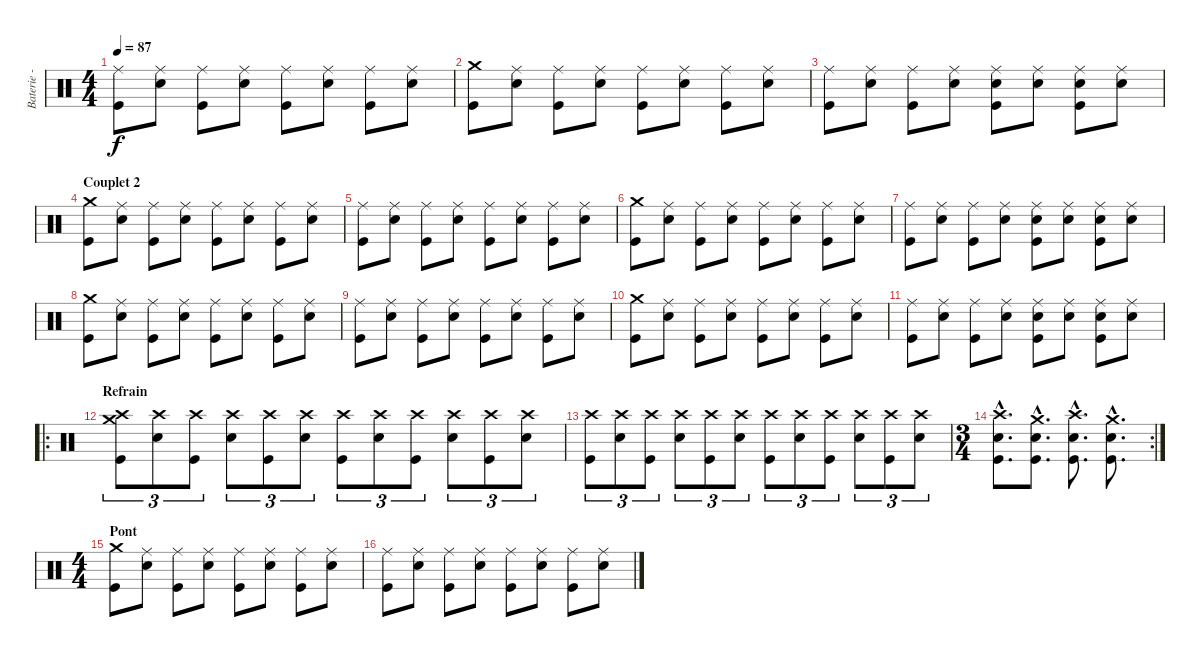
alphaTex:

\track ("Baterie - Alex" "Baterie - ") {instrument percussion}
\staff {score}
\articulation defaults
\ts (4 4)
\tempo 87
\clef neutral
\ks c
("Ride (middle)" "Kick (hit)").8{dy f} ("Ride (middle)" "Electric Snare (hit)").8 ("Ride (middle)" "Kick (hit)").8 ("Ride (middle)" "Electric Snare (hit)").8 ("Ride (middle)" "Kick (hit)").8 ("Ride (middle)" "Electric Snare (hit)").8 ("Ride (middle)" "Kick (hit)").8 ("Ride (middle)" "Electric Snare (hit)").8 |
("Crash medium (hit)" "Kick (hit)").8 ("Ride (middle)" "Electric Snare (hit)").8 ("Ride (middle)" "Kick (hit)").8 ("Ride (middle)" "Electric Snare (hit)").8 ("Ride (middle)" "Kick (hit)").8 ("Ride (middle)" "Electric Snare (hit)").8 ("Ride (middle)" "Kick (hit)").8 ("Ride (middle)" "Electric Snare (hit)").8 |
("Ride (middle)" "Kick (hit)").8 ("Ride (middle)" "Electric Snare (hit)").8 ("Ride (middle)" "Kick (hit)").8 ("Ride (middle)" "Electric Snare (hit)").8 ("Ride (middle)" "Electric Snare (hit)" "Kick (hit)").8 ("Ride (middle)" "Electric Snare (hit)").8 ("Ride (middle)" "Electric Snare (hit)" "Kick (hit)").8 ("Ride (middle)" "Electric Snare (hit)").8 |
\section ("" "Couplet 2")
("Crash medium (hit)" "Kick (hit)").8 ("Ride (middle)" "Electric Snare (hit)").8 ("Ride (middle)" "Kick (hit)").8 ("Ride (middle)" "Electric Snare (hit)").8 ("Ride (middle)" "Kick (hit)").8 ("Ride (middle)" "Electric Snare (hit)").8 ("Ride (middle)" "Kick (hit)").8 ("Ride (middle)" "Electric Snare (hit)").8 |
("Ride (middle)" "Kick (hit)").8 ("Ride (middle)" "Electric Snare (hit)").8 ("Ride (middle)" "Kick (hit)").8 ("Ride (middle)" "Electric Snare (hit)").8 ("Ride (middle)" "Kick (hit)").8 ("Ride (middle)" "Electric Snare (hit)").8 ("Ride (middle)" "Kick (hit)").8 ("Ride (middle)" "Electric Snare (hit)").8 |
("Crash medium (hit)" "Kick (hit)").8 ("Ride (middle)" "Electric Snare (hit)").8 ("Ride (middle)" "Kick (hit)").8 ("Ride (middle)" "Electric Snare (hit)").8 ("Ride (middle)" "Kick (hit)").8 ("Ride (middle)" "Electric Snare (hit)").8 ("Ride (middle)" "Kick (hit)").8 ("Ride (middle)" "Electric Snare (hit)").8 |
("Ride (middle)" "Kick (hit)").8 ("Ride (middle)" "Electric Snare (hit)").8 ("Ride (middle)" "Kick (hit)").8 ("Ride (middle)" "Electric Snare (hit)").8 ("Ride (middle)" "Electric Snare (hit)" "Kick (hit)").8 ("Ride (middle)" "Electric Snare (hit)").8 ("Ride (middle)" "Electric Snare (hit)" "Kick (hit)").8 ("Ride (middle)" "Electric Snare (hit)").8 |
("Crash medium (hit)" "Kick (hit)").8 ("Ride (middle)" "Electric Snare (hit)").8 ("Ride (middle)" "Kick (hit)").8 ("Ride (middle)" "Electric Snare (hit)").8 ("Ride (middle)" "Kick (hit)").8 ("Ride (middle)" "Electric Snare (hit)").8 ("Ride (middle)" "Kick (hit)").8 ("Ride (middle)" "Electric Snare (hit)").8 |
("Ride (middle)" "Kick (hit)").8 ("Ride (middle)" "Electric Snare (hit)").8 ("Ride (middle)" "Kick (hit)").8 ("Ride (middle)" "Electric Snare (hit)").8 ("Ride (middle)" "Kick (hit)").8 ("Ride (middle)" "Electric Snare (hit)").8 ("Ride (middle)" "Kick (hit)").8 ("Ride (middle)" "Electric Snare (hit)").8 |
("Crash medium (hit)" "Kick (hit)").8 ("Ride (middle)" "Electric Snare (hit)").8 ("Ride (middle)" "Kick (hit)").8 ("Ride (middle)" "Electric Snare (hit)").8 ("Ride (middle)" "Kick (hit)").8 ("Ride (middle)" "Electric Snare (hit)").8 ("Ride (middle)" "Kick (hit)").8 ("Ride (middle)" "Electric Snare (hit)").8 |
("Ride (middle)" "Kick (hit)").8 ("Ride (middle)" "Electric Snare (hit)").8 ("Ride (middle)" "Kick (hit)").8 ("Ride (middle)" "Electric Snare (hit)").8 ("Ride (middle)" "Electric Snare (hit)" "Kick (hit)").8 ("Ride (middle)" "Electric Snare (hit)").8 ("Ride (middle)" "Electric Snare (hit)" "Kick (hit)").8 ("Ride (middle)" "Electric Snare (hit)").8 |
\ro
\section ("" "Refrain")
("Crash high (hit)" "Crash medium (hit)" "Kick (hit)").8{tu (3 2)} ("Crash high (hit)" "Electric Snare (hit)").8{tu (3 2)} ("Crash high (hit)" "Kick (hit)").8{tu (3 2)} ("Crash high (hit)" "Electric Snare (hit)").8{tu (3 2)} ("Crash high (hit)" "Kick (hit)").8{tu (3 2)} ("Crash high (hit)" "Electric Snare (hit)").8{tu (3 2)} ("Crash high (hit)" "Kick (hit)").8{tu (3 2)} ("Crash high (hit)" "Electric Snare (hit)").8{tu (3 2)} ("Crash high (hit)" "Kick (hit)").8{tu (3 2)} ("Crash high (hit)" "Electric Snare (hit)").8{tu (3 2)} ("Crash high (hit)" "Kick (hit)").8{tu (3 2)} ("Crash high (hit)" "Electric Snare (hit)").8{tu (3 2)} |
("Crash high (hit)" "Kick (hit)").8{tu (3 2)} ("Crash high (hit)" "Electric Snare (hit)").8{tu (3 2)} ("Crash high (hit)" "Kick (hit)").8{tu (3 2)} ("Crash high (hit)" "Electric Snare (hit)").8{tu (3 2)} ("Crash high (hit)" "Kick (hit)").8{tu (3 2)} ("Crash high (hit)" "Electric Snare (hit)").8{tu (3 2)} ("Crash high (hit)" "Kick (hit)").8{tu (3 2)} ("Crash high (hit)" "Electric Snare (hit)").8{tu (3 2)} ("Crash high (hit)" "Kick (hit)").8{tu (3 2)} ("Crash high (hit)" "Electric Snare (hit)").8{tu (3 2)} ("Crash high (hit)" "Kick (hit)").8{tu (3 2)} ("Crash high (hit)" "Electric Snare (hit)").8{tu (3 2)} |
\rc 2
\ts (3 4)
("Crash high (hit)"{hac} "Electric Snare (hit)"{hac} "Kick (hit)"{hac}).8{d} ("Crash medium (hit)"{hac} "Electric Snare (hit)"{hac} "Kick (hit)"{hac}).8{d} ("Crash high (hit)"{hac} "Electric Snare (hit)"{hac} "Kick (hit)"{hac}).8{d} ("Crash medium (hit)"{hac} "Electric Snare (hit)"{hac} "Kick (hit)"{hac}).8{d} |
\ts (4 4)
\section ("" "Pont")
("Crash medium (hit)" "Kick (hit)").8 ("Ride (middle)" "Electric Snare (hit)").8 ("Ride (middle)" "Kick (hit)").8 ("Ride (middle)" "Electric Snare (hit)").8 ("Ride (middle)" "Kick (hit)").8 ("Ride (middle)" "Electric Snare (hit)").8 ("Ride (middle)" "Kick (hit)").8 ("Ride (middle)" "Electric Snare (hit)").8 |
("Ride (middle)" "Kick (hit)").8 ("Ride (middle)" "Electric Snare (hit)").8 ("Ride (middle)" "Kick (hit)").8 ("Ride (middle)" "Electric Snare (hit)").8 ("Ride (middle)" "Kick (hit)").8 ("Ride (middle)" "Electric Snare (hit)").8 ("Ride (middle)" "Kick (hit)").8 ("Ride (middle)" "Electric Snare (hit)").8
